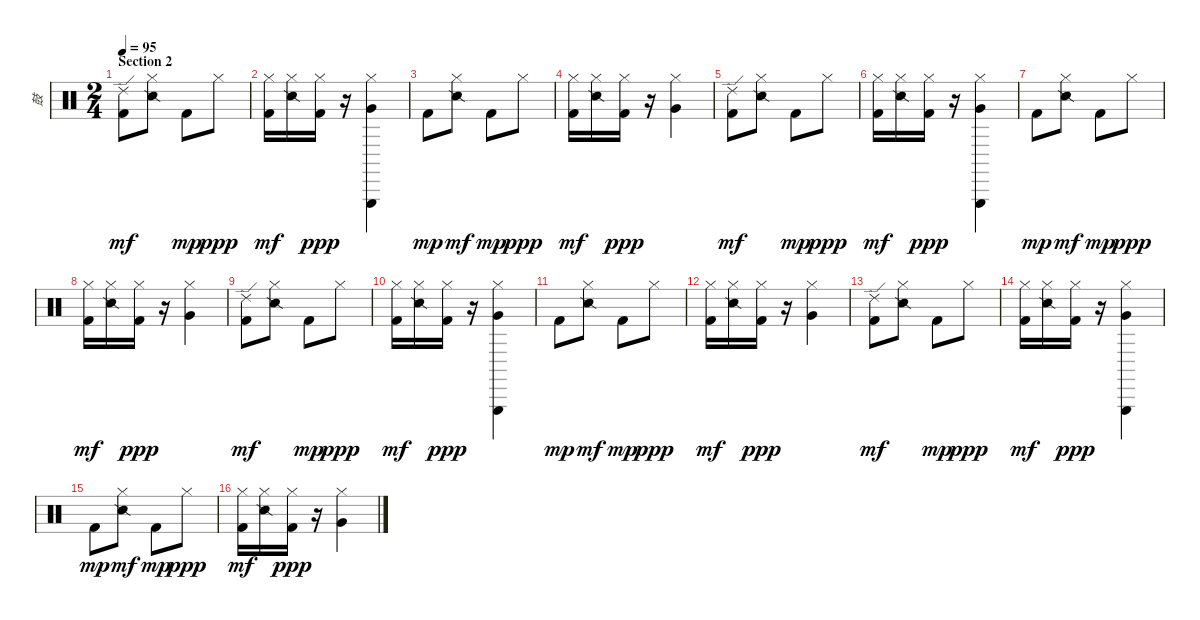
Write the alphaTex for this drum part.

\track ("鼓" "鼓") {instrument percussion}
\staff {score}
\articulation defaults
\ts (2 4)
\section ("" "Section 2")
\tempo 95
\clef neutral
\ks c
("Kick (hit) 2" "Ride (edge) 2").8{dy mf} ("Snare (side stick) 2" "Hi-Hat (closed)").8 "Kick (hit) 2".8{dy mp} "Hi-Hat (closed)".8{dy ppp} |
("Kick (hit) 2" "Hi-Hat (closed)").16{dy mf} ("Snare (side stick) 2" "Hi-Hat (closed)").16 ("Kick (hit) 2" "Hi-Hat (closed)").16{dy ppp} r.16 ("Triangle (hit)" "Very Low Tom (hit)" "Hi-Hat (closed)").4 |
"Kick (hit) 2".8{dy mp} ("Snare (side stick) 2" "Hi-Hat (closed)").8{dy mf} "Kick (hit) 2".8{dy mp} "Hi-Hat (closed)".8{dy ppp} |
("Kick (hit) 2" "Hi-Hat (closed)").16{dy mf} ("Snare (side stick) 2" "Hi-Hat (closed)").16 ("Kick (hit) 2" "Hi-Hat (closed)").16{dy ppp} r.16 ("Very Low Tom (hit)" "Hi-Hat (closed)").4 |
("Kick (hit) 2" "Ride (edge) 2").8{dy mf} ("Snare (side stick) 2" "Hi-Hat (closed)").8 "Kick (hit) 2".8{dy mp} "Hi-Hat (closed)".8{dy ppp} |
("Kick (hit) 2" "Hi-Hat (closed)").16{dy mf} ("Snare (side stick) 2" "Hi-Hat (closed)").16 ("Kick (hit) 2" "Hi-Hat (closed)").16{dy ppp} r.16 ("Triangle (hit)" "Very Low Tom (hit)" "Hi-Hat (closed)").4 |
"Kick (hit) 2".8{dy mp} ("Snare (side stick) 2" "Hi-Hat (closed)").8{dy mf} "Kick (hit) 2".8{dy mp} "Hi-Hat (closed)".8{dy ppp} |
("Kick (hit) 2" "Hi-Hat (closed)").16{dy mf} ("Snare (side stick) 2" "Hi-Hat (closed)").16 ("Kick (hit) 2" "Hi-Hat (closed)").16{dy ppp} r.16 ("Very Low Tom (hit)" "Hi-Hat (closed)").4 |
("Kick (hit) 2" "Ride (edge) 2").8{dy mf} ("Snare (side stick) 2" "Hi-Hat (closed)").8 "Kick (hit) 2".8{dy mp} "Hi-Hat (closed)".8{dy ppp} |
("Kick (hit) 2" "Hi-Hat (closed)").16{dy mf} ("Snare (side stick) 2" "Hi-Hat (closed)").16 ("Kick (hit) 2" "Hi-Hat (closed)").16{dy ppp} r.16 ("Triangle (hit)" "Very Low Tom (hit)" "Hi-Hat (closed)").4 |
"Kick (hit) 2".8{dy mp} ("Snare (side stick) 2" "Hi-Hat (closed)").8{dy mf} "Kick (hit) 2".8{dy mp} "Hi-Hat (closed)".8{dy ppp} |
("Kick (hit) 2" "Hi-Hat (closed)").16{dy mf} ("Snare (side stick) 2" "Hi-Hat (closed)").16 ("Kick (hit) 2" "Hi-Hat (closed)").16{dy ppp} r.16 ("Very Low Tom (hit)" "Hi-Hat (closed)").4 |
("Kick (hit) 2" "Ride (edge) 2").8{dy mf} ("Snare (side stick) 2" "Hi-Hat (closed)").8 "Kick (hit) 2".8{dy mp} "Hi-Hat (closed)".8{dy ppp} |
("Kick (hit) 2" "Hi-Hat (closed)").16{dy mf} ("Snare (side stick) 2" "Hi-Hat (closed)").16 ("Kick (hit) 2" "Hi-Hat (closed)").16{dy ppp} r.16 ("Triangle (hit)" "Very Low Tom (hit)" "Hi-Hat (closed)").4 |
"Kick (hit) 2".8{dy mp} ("Snare (side stick) 2" "Hi-Hat (closed)").8{dy mf} "Kick (hit) 2".8{dy mp} "Hi-Hat (closed)".8{dy ppp} |
("Kick (hit) 2" "Hi-Hat (closed)").16{dy mf} ("Snare (side stick) 2" "Hi-Hat (closed)").16 ("Kick (hit) 2" "Hi-Hat (closed)").16{dy ppp} r.16 ("Very Low Tom (hit)" "Hi-Hat (closed)").4
